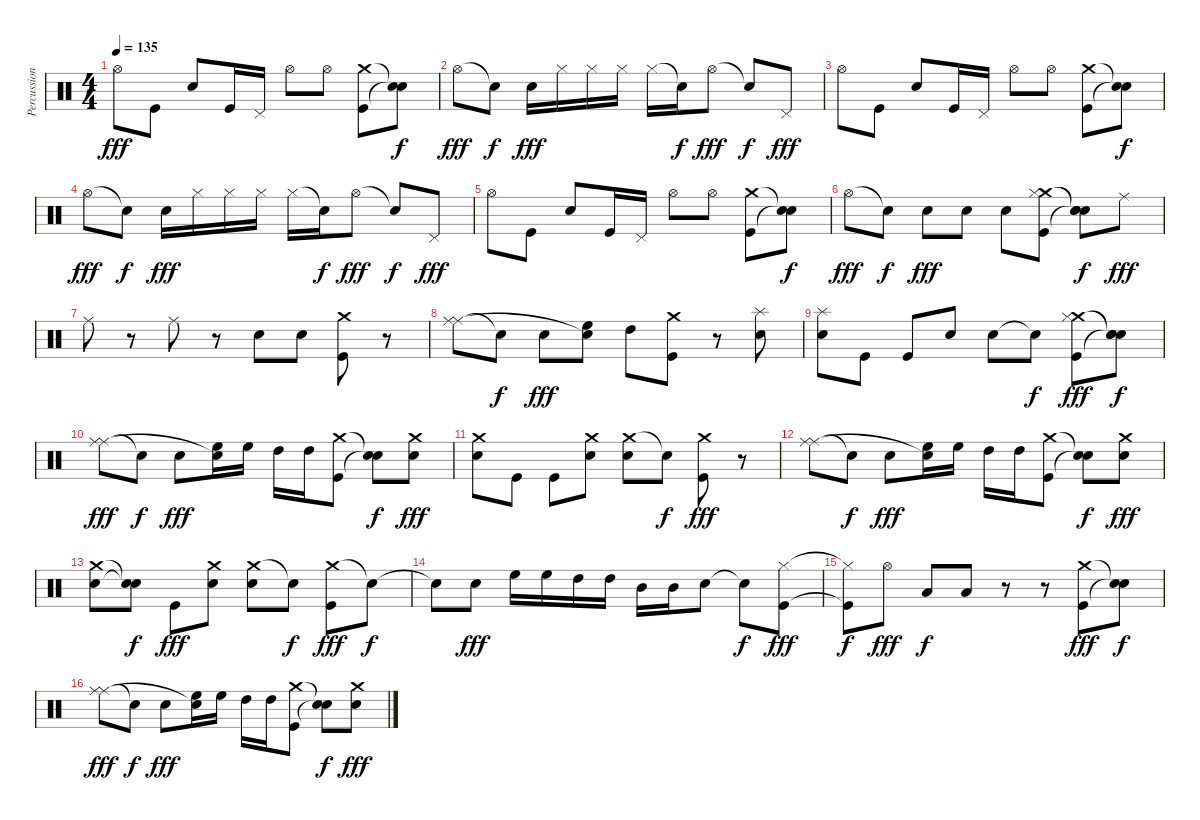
\track ("Percussions" "Percussion") {instrument percussion}
\staff {score}
\articulation defaults
\ts (4 4)
\tempo 135
\clef neutral
\ks c "Hi-Hat (open)".8{dy fff} "Kick (hit)".8 "Electric Snare (hit)".8 "Kick (hit)".16 "Pedal Hi-Hat (hit)".16 "Hi-Hat (open)".8 "Hi-Hat (open)".8
("Crash medium (hit)" "Kick (hit)").8 ("Snare (hit)"{t} "Snare (hit)"{t}).8{dy f} |
"Hi-Hat (open)".8{dy fff} "Snare (hit)"{t}.8{dy f} "Electric Snare (hit)".16{dy fff} "Hi-Hat (closed)".16 "Hi-Hat (closed)".16 "Hi-Hat (closed)".16 "Hi-Hat (closed)".16 "Snare (hit)"{t}.16{dy f} "Hi-Hat (open)".8{dy fff} "Snare (hit)"{t}.8{dy f} "Pedal Hi-Hat (hit)".8{dy fff} |
"Hi-Hat (open)".8 "Kick (hit)".8 "Electric Snare (hit)".8 "Kick (hit)".16 "Pedal Hi-Hat (hit)".16 "Hi-Hat (open)".8 "Hi-Hat (open)".8 ("Crash medium (hit)" "Kick (hit)").8 ("Snare (hit)"{t} "Snare (hit)"{t}).8{dy f} |
"Hi-Hat (open)".8{dy fff} "Snare (hit)"{t}.8{dy f} "Electric Snare (hit)".16{dy fff} "Hi-Hat (closed)".16 "Hi-Hat (closed)".16 "Hi-Hat (closed)".16 "Hi-Hat (closed)".16 "Snare (hit)"{t}.16{dy f} "Hi-Hat (open)".8{dy fff} "Snare (hit)"{t}.8{dy f} "Pedal Hi-Hat (hit)".8{dy fff} |
"Hi-Hat (open)".8 "Kick (hit)".8 "Electric Snare (hit)".8 "Kick (hit)".16 "Pedal Hi-Hat (hit)".16 "Hi-Hat (open)".8 "Hi-Hat (open)".8 ("Crash medium (hit)" "Kick (hit)").8 ("Snare (hit)"{t} "Snare (hit)"{t}).8{dy f} |
"Hi-Hat (open)".8{dy fff} "Snare (hit)"{t}.8{dy f} "Electric Snare (hit)".8{dy fff} "Electric Snare (hit)".8 "Electric Snare (hit)".8 ("Crash medium (hit)" "Hi-Hat (closed)" "Kick (hit)").8 ("Snare (hit)"{t} "Snare (hit)"{t} "Snare (hit)"{t}).8{dy f} "Ride (middle)".8{dy fff} |
"Ride (middle)".8 r.8 "Ride (middle)".8 r.8 "Electric Snare (hit)".8 "Electric Snare (hit)".8 ("Crash medium (hit)" "Kick (hit)").8 r.8 |
("Ride (middle)" "Ride (middle)").8 "Snare (hit)"{t}.8{dy f} "Electric Snare (hit)".8{dy fff} ("High Floor Tom (hit)" "Snare (hit)"{t}).8{volume 11} "High Tom (hit)".8 ("Crash medium (hit)" "Kick (hit)").8{volume 16} r.8 ("Splash (hit)" "Electric Snare (hit)").8 |
("Splash (hit)" "Electric Snare (hit)").8 "Kick (hit)".8 "Kick (hit)".8 "Electric Snare (hit)".8 "Electric Snare (hit)".8 "Snare (hit)"{t}.8{dy f} ("Crash medium (hit)" "Hi-Hat (closed)" "Kick (hit)").8{dy fff} ("Snare (hit)"{t} "Snare (hit)"{t} "Snare (hit)"{t}).8{dy f} |
("Ride (middle)" "Ride (middle)").8{dy fff} "Snare (hit)"{t}.8{dy f} "Electric Snare (hit)".8{dy fff} ("High Floor Tom (hit)" "Snare (hit)"{t}).16{volume 11} "High Floor Tom (hit)".16 "High Tom (hit)".16 "High Tom (hit)".16 ("Crash medium (hit)" "Kick (hit)").8{volume 16} ("Snare (hit)"{t} "Snare (hit)"{t}).8{dy f} ("Crash medium (hit)" "Electric Snare (hit)").8{dy fff} |
("Crash medium (hit)" "Electric Snare (hit)").8 "Kick (hit)".8 "Kick (hit)".8 ("Crash medium (hit)" "Electric Snare (hit)").8 ("Crash medium (hit)" "Electric Snare (hit)").8 "Electric Snare (hit)"{t}.8{dy f} ("Crash medium (hit)" "Kick (hit)").8{dy fff} r.8 |
("Ride (middle)" "Ride (middle)").8 "Snare (hit)"{t}.8{dy f} "Electric Snare (hit)".8{dy fff} ("High Floor Tom (hit)" "Snare (hit)"{t}).16{volume 11} "High Floor Tom (hit)".16 "High Tom (hit)".16 "High Tom (hit)".16 ("Crash medium (hit)" "Kick (hit)").8{volume 16} ("Snare (hit)"{t} "Snare (hit)"{t}).8{dy f} ("Crash medium (hit)" "Electric Snare (hit)").8{dy fff} |
("Crash medium (hit)" "Electric Snare (hit)").8 ("Snare (hit)"{t} "Snare (hit)"{t}).8{dy f} "Kick (hit)".8{dy fff} ("Crash medium (hit)" "Electric Snare (hit)").8 ("Crash medium (hit)" "Electric Snare (hit)").8 "Snare (hit)"{t}.8{dy f} ("Crash medium (hit)" "Kick (hit)").8{dy fff} "Snare (hit)"{t}.8{dy f} |
"Snare (hit)"{t}.8 "Electric Snare (hit)".8{dy fff} "High Floor Tom (hit)".16{volume 11} "High Floor Tom (hit)".16 "High Tom (hit)".16 "High Tom (hit)".16 "Mid Tom (hit)".16 "Mid Tom (hit)".16 "Electric Snare (hit)".8{volume 16} "Snare (hit)"{t}.8{dy f} ("Hi-Hat (closed)" "Kick (hit)").8{dy fff} |
("Hi-Hat (closed)"{t} "Kick (hit)"{t}).8{dy f} "Hi-Hat (open)".8{dy fff} "Low Tom (hit)".8{dy f} "Low Tom (hit)".8 r.8 r.8 ("Crash medium (hit)" "Kick (hit)").8{dy fff} ("Snare (hit)"{t} "Snare (hit)"{t}).8{dy f} |
("Ride (middle)" "Ride (middle)").8{dy fff} "Snare (hit)"{t}.8{dy f} "Electric Snare (hit)".8{dy fff} ("High Floor Tom (hit)" "Snare (hit)"{t}).16{volume 11} "High Floor Tom (hit)".16 "High Tom (hit)".16 "High Tom (hit)".16 ("Crash medium (hit)" "Kick (hit)").8{volume 16} ("Snare (hit)"{t} "Snare (hit)"{t}).8{dy f} ("Crash medium (hit)" "Electric Snare (hit)").8{dy fff}
